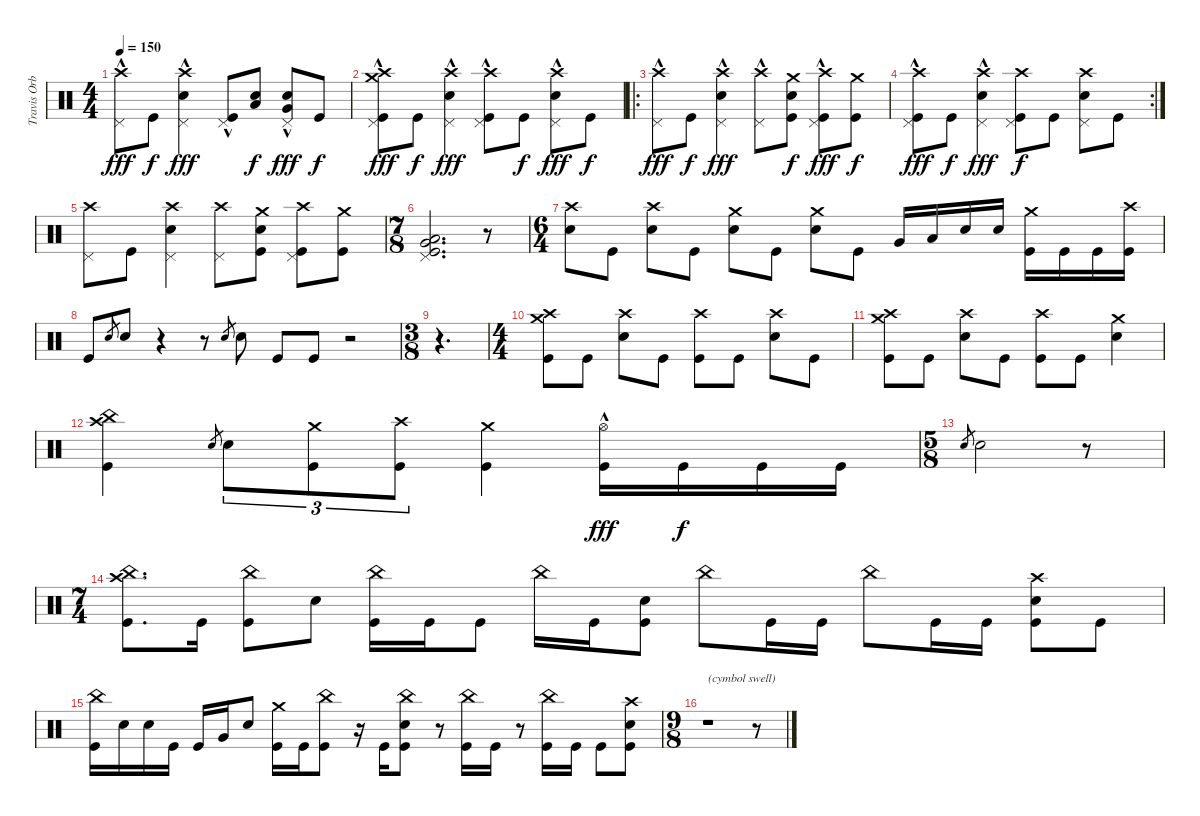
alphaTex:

\track ("Travis Orbin" "Travis Orb") {instrument percussion}
\staff {score}
\articulation defaults
\ts (4 4)
\tempo 150
\clef neutral
\ks c
("Crash high (hit)" "Pedal Hi-Hat (hit)"{hac}).8{dy fff} "Kick (hit)".8{dy f} ("Crash high (hit)" "Electric Snare (hit)" "Pedal Hi-Hat (hit)"{hac}).4{dy fff} ("Kick (hit)" "Pedal Hi-Hat (hit)"{hac}).8 ("Low Tom (hit)" "Electric Snare (hit)").8{dy f} ("Electric Snare (hit)" "Very Low Tom (hit)" "Pedal Hi-Hat (hit)"{hac}).8{dy fff} "Kick (hit)".8{dy f} |
("Crash high (hit)" "Crash medium (hit)" "Kick (hit)" "Pedal Hi-Hat (hit)"{hac}).8{dy fff} "Kick (hit)".8{dy f} ("Crash high (hit)" "Electric Snare (hit)" "Pedal Hi-Hat (hit)"{hac}).4{dy fff} ("Crash high (hit)" "Kick (hit)" "Pedal Hi-Hat (hit)"{hac}).8 "Kick (hit)".8{dy f} ("Crash high (hit)" "Electric Snare (hit)" "Pedal Hi-Hat (hit)"{hac}).8{dy fff} "Kick (hit)".8{dy f} |
\ro
("Crash high (hit)" "Pedal Hi-Hat (hit)"{hac}).8{dy fff} "Kick (hit)".8{dy f} ("Crash high (hit)" "Electric Snare (hit)" "Pedal Hi-Hat (hit)"{hac}).4{dy fff} ("Crash high (hit)" "Pedal Hi-Hat (hit)"{hac}).8 ("Crash medium (hit)" "Electric Snare (hit)" "Kick (hit)").8{dy f} ("Crash high (hit)" "Kick (hit)" "Pedal Hi-Hat (hit)"{hac}).8{dy fff} ("Crash medium (hit)" "Kick (hit)").8{dy f} |
\rc 2
("Crash high (hit)" "Kick (hit)" "Pedal Hi-Hat (hit)"{hac}).8{dy fff} "Kick (hit)".8{dy f} ("Crash high (hit)" "Electric Snare (hit)" "Pedal Hi-Hat (hit)"{hac}).4{dy fff} ("Crash high (hit)" "Kick (hit)" "Pedal Hi-Hat (hit)").8{dy f} "Kick (hit)".8 ("Crash high (hit)" "Electric Snare (hit)" "Pedal Hi-Hat (hit)").8 "Kick (hit)".8 |
("Crash high (hit)" "Pedal Hi-Hat (hit)").8 "Kick (hit)".8 ("Crash high (hit)" "Electric Snare (hit)" "Pedal Hi-Hat (hit)").4 ("Crash high (hit)" "Pedal Hi-Hat (hit)").8 ("Crash medium (hit)" "Electric Snare (hit)" "Kick (hit)").8 ("Crash high (hit)" "Kick (hit)" "Pedal Hi-Hat (hit)").8 ("Crash medium (hit)" "Kick (hit)").8 |
\ts (7 8)
("Low Tom (hit)" "Very Low Tom (hit)" "Kick (hit)" "Pedal Hi-Hat (hit)").2{d} r.8 |
\ts (6 4)
("Crash high (hit)" "Electric Snare (hit)").8 "Kick (hit)".8 ("Crash high (hit)" "Electric Snare (hit)").8 "Kick (hit)".8 ("Crash medium (hit)" "Electric Snare (hit)").8 "Kick (hit)".8 ("Crash medium (hit)" "Electric Snare (hit)").8 "Kick (hit)".8 "Very Low Tom (hit)".16 "Low Tom (hit)".16 "Electric Snare (hit)".16 "Electric Snare (hit)".16 ("Crash medium (hit)" "Kick (hit)").16 "Kick (hit)".16 "Kick (hit)".16 ("Crash high (hit)" "Kick (hit)").16 |
"Kick (hit)".8 "Electric Snare (hit)".8{gr} "Electric Snare (hit)".8 r.4 r.8 "Electric Snare (hit)".8{gr} "Electric Snare (hit)".8 "Kick (hit)".8 "Kick (hit)".8 r.2 |
\ts (3 8)
r.4{d} |
\ts (4 4)
("Crash high (hit)" "Crash medium (hit)" "Kick (hit)").8 "Kick (hit)".8 ("Crash high (hit)" "Electric Snare (hit)").8 "Kick (hit)".8 ("Crash high (hit)" "Kick (hit)").8 "Kick (hit)".8 ("Crash high (hit)" "Electric Snare (hit)").8 "Kick (hit)".8 |
("Crash high (hit)" "Crash medium (hit)" "Kick (hit)").8 "Kick (hit)".8 ("Crash high (hit)" "Electric Snare (hit)").8 "Kick (hit)".8 ("Crash high (hit)" "Kick (hit)").8 "Kick (hit)".8 ("Crash medium (hit)" "Electric Snare (hit)").4 |
("Crash high (hit)" "China (hit)" "Kick (hit)").4 "Electric Snare (hit)".8{gr} "Electric Snare (hit)".8{tu (3 2)} ("Crash medium (hit)" "Kick (hit)").8{tu (3 2)} ("Crash high (hit)" "Kick (hit)").8{tu (3 2)} ("Crash medium (hit)" "Kick (hit)").4 ("Hi-Hat (open)"{hac} "Kick (hit)").16{dy fff} "Kick (hit)".16{dy f} "Kick (hit)".16 "Kick (hit)".16 |
\ts (5 8)
"Electric Snare (hit)".8{gr} "Electric Snare (hit)".2 r.8 |
\ts (7 4)
("China (hit)" "Crash high (hit)" "Kick (hit)").8{d} "Kick (hit)".16 ("China (hit)" "Kick (hit)").8 "Electric Snare (hit)".8 ("China (hit)" "Kick (hit)").16 "Kick (hit)".16 "Kick (hit)".8 "China (hit)".16 "Kick (hit)".16 ("Electric Snare (hit)" "Kick (hit)").8 "China (hit)".8 "Kick (hit)".16 "Kick (hit)".16 "China (hit)".8 "Kick (hit)".16 "Kick (hit)".16 ("Crash high (hit)" "Electric Snare (hit)" "Kick (hit)").8 "Kick (hit)".8 |
("China (hit)" "Kick (hit)").16 "Electric Snare (hit)".16 "Electric Snare (hit)".16 "Kick (hit)".16 "Kick (hit)".16 "Very Low Tom (hit)".16 "Electric Snare (hit)".8 ("Crash medium (hit)" "Kick (hit)").16 "Kick (hit)".16 ("China (hit)" "Kick (hit)").8 r.16 "Kick (hit)".16 ("China (hit)" "Electric Snare (hit)" "Kick (hit)").8 r.8 ("China (hit)" "Kick (hit)").16 "Kick (hit)".16 r.8 ("China (hit)" "Kick (hit)").16 "Kick (hit)".16 "Kick (hit)".8 ("Crash high (hit)" "Electric Snare (hit)" "Kick (hit)").8 |
\ts (9 8)
r.1{txt "(cymbol swell)"} r.8
